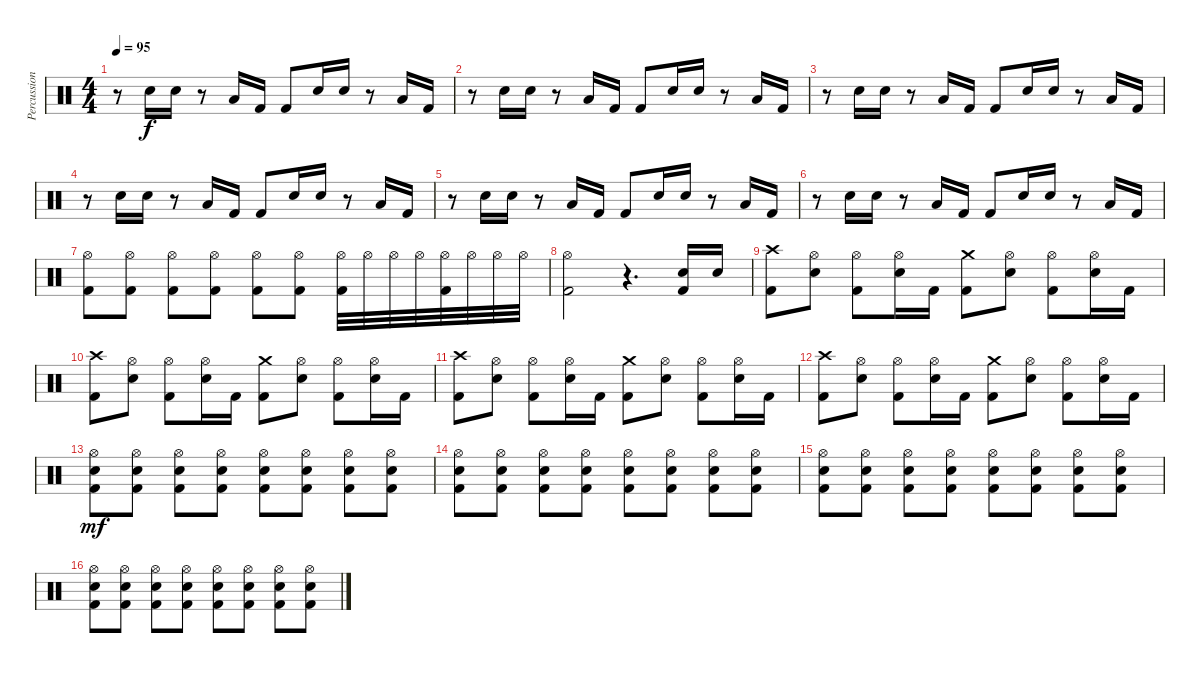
\track ("Percussion" "Percussion") {instrument percussion}
\staff {score}
\articulation defaults
\ts (4 4)
\tempo 95
\clef neutral
\ks c
r.8{dy f} "Electric Snare (hit)".16 "Electric Snare (hit)".16 r.8 "Low Floor Tom (hit)".16 "Kick (hit) 2".16 "Kick (hit) 2".8 "Electric Snare (hit)".16 "Electric Snare (hit)".16 r.8 "Low Floor Tom (hit)".16 "Kick (hit) 2".16 |
r.8 "Electric Snare (hit)".16 "Electric Snare (hit)".16 r.8 "Low Floor Tom (hit)".16 "Kick (hit) 2".16 "Kick (hit) 2".8 "Electric Snare (hit)".16 "Electric Snare (hit)".16 r.8 "Low Floor Tom (hit)".16 "Kick (hit) 2".16 |
r.8 "Electric Snare (hit)".16 "Electric Snare (hit)".16 r.8 "Low Floor Tom (hit)".16 "Kick (hit) 2".16 "Kick (hit) 2".8 "Electric Snare (hit)".16 "Electric Snare (hit)".16 r.8 "Low Floor Tom (hit)".16 "Kick (hit) 2".16 |
r.8 "Electric Snare (hit)".16 "Electric Snare (hit)".16 r.8 "Low Floor Tom (hit)".16 "Kick (hit) 2".16 "Kick (hit) 2".8 "Electric Snare (hit)".16 "Electric Snare (hit)".16 r.8 "Low Floor Tom (hit)".16 "Kick (hit) 2".16 |
r.8 "Electric Snare (hit)".16 "Electric Snare (hit)".16 r.8 "Low Floor Tom (hit)".16 "Kick (hit) 2".16 "Kick (hit) 2".8 "Electric Snare (hit)".16 "Electric Snare (hit)".16 r.8 "Low Floor Tom (hit)".16 "Kick (hit) 2".16 |
r.8 "Electric Snare (hit)".16 "Electric Snare (hit)".16 r.8 "Low Floor Tom (hit)".16 "Kick (hit) 2".16 "Kick (hit) 2".8 "Electric Snare (hit)".16 "Electric Snare (hit)".16 r.8 "Low Floor Tom (hit)".16 "Kick (hit) 2".16 |
("Hi-Hat (open)" "Kick (hit) 2").8 ("Hi-Hat (open)" "Kick (hit) 2").8 ("Hi-Hat (open)" "Kick (hit) 2").8 ("Hi-Hat (open)" "Kick (hit) 2").8 ("Hi-Hat (open)" "Kick (hit) 2").8 ("Hi-Hat (open)" "Kick (hit) 2").8 ("Hi-Hat (open)" "Kick (hit) 2").32 "Hi-Hat (open)".32 "Hi-Hat (open)".32 "Hi-Hat (open)".32 ("Hi-Hat (open)" "Kick (hit) 2").32 "Hi-Hat (open)".32 "Hi-Hat (open)".32 "Hi-Hat (open)".32 |
("Hi-Hat (open)" "Kick (hit) 2").2 r.4{d} ("Electric Snare (hit)" "Kick (hit) 2").16 "Electric Snare (hit)".16 |
("Crash high (hit)" "Kick (hit) 2").8 ("Hi-Hat (open)" "Electric Snare (hit)").8 ("Hi-Hat (open)" "Kick (hit) 2").8 ("Hi-Hat (open)" "Electric Snare (hit)").16 "Kick (hit) 2".16 ("Crash medium (hit)" "Kick (hit) 2").8 ("Hi-Hat (open)" "Electric Snare (hit)").8 ("Hi-Hat (open)" "Kick (hit) 2").8 ("Hi-Hat (open)" "Electric Snare (hit)").16 "Kick (hit) 2".16 |
("Crash high (hit)" "Kick (hit) 2").8 ("Hi-Hat (open)" "Electric Snare (hit)").8 ("Hi-Hat (open)" "Kick (hit) 2").8 ("Hi-Hat (open)" "Electric Snare (hit)").16 "Kick (hit) 2".16 ("Crash medium (hit)" "Kick (hit) 2").8 ("Hi-Hat (open)" "Electric Snare (hit)").8 ("Hi-Hat (open)" "Kick (hit) 2").8 ("Hi-Hat (open)" "Electric Snare (hit)").16 "Kick (hit) 2".16 |
("Crash high (hit)" "Kick (hit) 2").8 ("Hi-Hat (open)" "Electric Snare (hit)").8 ("Hi-Hat (open)" "Kick (hit) 2").8 ("Hi-Hat (open)" "Electric Snare (hit)").16 "Kick (hit) 2".16 ("Crash medium (hit)" "Kick (hit) 2").8 ("Hi-Hat (open)" "Electric Snare (hit)").8 ("Hi-Hat (open)" "Kick (hit) 2").8 ("Hi-Hat (open)" "Electric Snare (hit)").16 "Kick (hit) 2".16 |
("Crash high (hit)" "Kick (hit) 2").8 ("Hi-Hat (open)" "Electric Snare (hit)").8 ("Hi-Hat (open)" "Kick (hit) 2").8 ("Hi-Hat (open)" "Electric Snare (hit)").16 "Kick (hit) 2".16 ("Crash medium (hit)" "Kick (hit) 2").8 ("Hi-Hat (open)" "Electric Snare (hit)").8 ("Hi-Hat (open)" "Kick (hit) 2").8 ("Hi-Hat (open)" "Electric Snare (hit)").16 "Kick (hit) 2".16 |
("Hi-Hat (open)" "Electric Snare (hit)" "Kick (hit) 2").8{dy mf} ("Hi-Hat (open)" "Electric Snare (hit)" "Kick (hit) 2").8 ("Hi-Hat (open)" "Electric Snare (hit)" "Kick (hit) 2").8 ("Hi-Hat (open)" "Electric Snare (hit)" "Kick (hit) 2").8 ("Hi-Hat (open)" "Electric Snare (hit)" "Kick (hit) 2").8 ("Hi-Hat (open)" "Electric Snare (hit)" "Kick (hit) 2").8 ("Hi-Hat (open)" "Electric Snare (hit)" "Kick (hit) 2").8 ("Hi-Hat (open)" "Electric Snare (hit)" "Kick (hit) 2").8 |
("Hi-Hat (open)" "Electric Snare (hit)" "Kick (hit) 2").8 ("Hi-Hat (open)" "Electric Snare (hit)" "Kick (hit) 2").8 ("Hi-Hat (open)" "Electric Snare (hit)" "Kick (hit) 2").8 ("Hi-Hat (open)" "Electric Snare (hit)" "Kick (hit) 2").8 ("Hi-Hat (open)" "Electric Snare (hit)" "Kick (hit) 2").8 ("Hi-Hat (open)" "Electric Snare (hit)" "Kick (hit) 2").8 ("Hi-Hat (open)" "Electric Snare (hit)" "Kick (hit) 2").8 ("Hi-Hat (open)" "Electric Snare (hit)" "Kick (hit) 2").8 |
("Hi-Hat (open)" "Electric Snare (hit)" "Kick (hit) 2").8 ("Hi-Hat (open)" "Electric Snare (hit)" "Kick (hit) 2").8 ("Hi-Hat (open)" "Electric Snare (hit)" "Kick (hit) 2").8 ("Hi-Hat (open)" "Electric Snare (hit)" "Kick (hit) 2").8 ("Hi-Hat (open)" "Electric Snare (hit)" "Kick (hit) 2").8 ("Hi-Hat (open)" "Electric Snare (hit)" "Kick (hit) 2").8 ("Hi-Hat (open)" "Electric Snare (hit)" "Kick (hit) 2").8 ("Hi-Hat (open)" "Electric Snare (hit)" "Kick (hit) 2").8 |
("Hi-Hat (open)" "Electric Snare (hit)" "Kick (hit) 2").8 ("Hi-Hat (open)" "Electric Snare (hit)" "Kick (hit) 2").8 ("Hi-Hat (open)" "Electric Snare (hit)" "Kick (hit) 2").8 ("Hi-Hat (open)" "Electric Snare (hit)" "Kick (hit) 2").8 ("Hi-Hat (open)" "Electric Snare (hit)" "Kick (hit) 2").8 ("Hi-Hat (open)" "Electric Snare (hit)" "Kick (hit) 2").8 ("Hi-Hat (open)" "Electric Snare (hit)" "Kick (hit) 2").8 ("Hi-Hat (open)" "Electric Snare (hit)" "Kick (hit) 2").8
